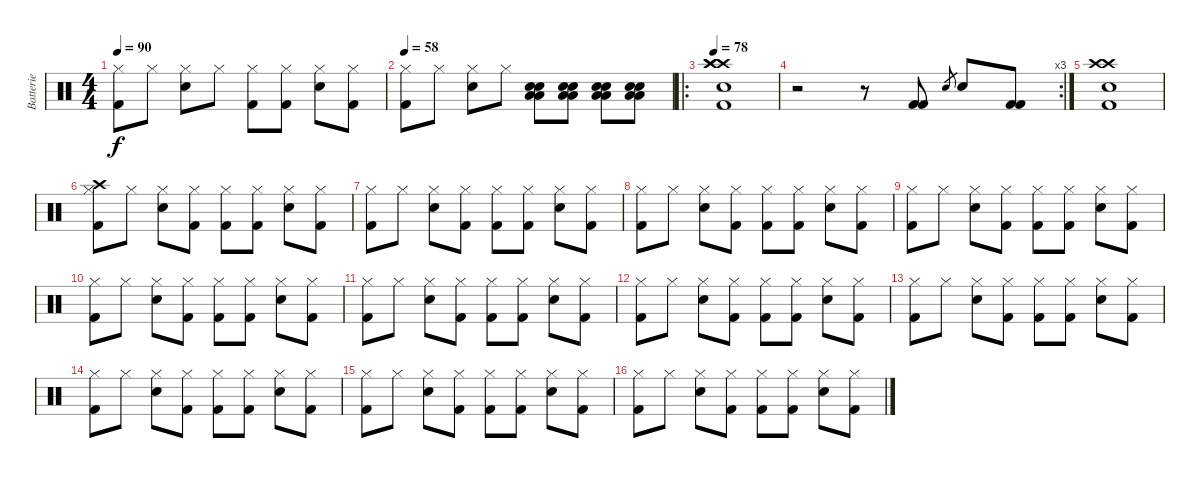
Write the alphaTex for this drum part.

\track ("Batterie" "Batterie") {instrument percussion}
\staff {score}
\articulation defaults
\ts (4 4)
\tempo 90
\clef neutral
\ks c
("Hi-Hat (closed)" "Kick (hit) 2").8{dy f} "Hi-Hat (closed)".8 ("Hi-Hat (closed)" "Electric Snare (hit)").8 "Hi-Hat (closed)".8 ("Hi-Hat (closed)" "Kick (hit) 2").8 ("Hi-Hat (closed)" "Kick (hit) 2").8 ("Hi-Hat (closed)" "Electric Snare (hit)").8 ("Hi-Hat (closed)" "Kick (hit) 2").8 |
\tempo 58
("Hi-Hat (closed)" "Kick (hit) 2").8 "Hi-Hat (closed)".8 ("Hi-Hat (closed)" "Electric Snare (hit)").8 "Hi-Hat (closed)".8 ("Low Floor Tom (hit)" "Low Floor Tom (hit)" "Electric Snare (hit)" "Electric Snare (hit)").8 ("Low Floor Tom (hit)" "Low Floor Tom (hit)" "Electric Snare (hit)" "Electric Snare (hit)").8 ("Low Floor Tom (hit)" "Low Floor Tom (hit)" "Electric Snare (hit)" "Electric Snare (hit)").8 ("Low Floor Tom (hit)" "Low Floor Tom (hit)" "Electric Snare (hit)" "Electric Snare (hit)").8 |
\ro
\tempo 78
("Crash high (hit)" "Crash high (hit)" "Crash high (hit)" "Electric Snare (hit)" "Kick (hit) 2").1 |
\rc 3
r.2 r.8 ("Kick (hit) 2" "Kick (hit) 2").8 "Electric Snare (hit)".8{gr} "Electric Snare (hit)".8 ("Kick (hit) 2" "Kick (hit) 2").8 |
("Crash high (hit)" "Crash high (hit)" "Electric Snare (hit)" "Kick (hit) 2").1 |
("Hi-Hat (closed)" "Crash high (hit)" "Kick (hit) 2").8 "Hi-Hat (closed)".8 ("Hi-Hat (closed)" "Electric Snare (hit)").8 ("Hi-Hat (closed)" "Kick (hit) 2").8 ("Hi-Hat (closed)" "Kick (hit) 2").8 ("Hi-Hat (closed)" "Kick (hit) 2").8 ("Hi-Hat (closed)" "Electric Snare (hit)").8 ("Hi-Hat (closed)" "Kick (hit) 2").8 |
("Hi-Hat (closed)" "Kick (hit) 2").8 "Hi-Hat (closed)".8 ("Hi-Hat (closed)" "Electric Snare (hit)").8 ("Hi-Hat (closed)" "Kick (hit) 2").8 ("Hi-Hat (closed)" "Kick (hit) 2").8 ("Hi-Hat (closed)" "Kick (hit) 2").8 ("Hi-Hat (closed)" "Electric Snare (hit)").8 ("Hi-Hat (closed)" "Kick (hit) 2").8 |
("Hi-Hat (closed)" "Kick (hit) 2").8 "Hi-Hat (closed)".8 ("Hi-Hat (closed)" "Electric Snare (hit)").8 ("Hi-Hat (closed)" "Kick (hit) 2").8 ("Hi-Hat (closed)" "Kick (hit) 2").8 ("Hi-Hat (closed)" "Kick (hit) 2").8 ("Hi-Hat (closed)" "Electric Snare (hit)").8 ("Hi-Hat (closed)" "Kick (hit) 2").8 |
("Hi-Hat (closed)" "Kick (hit) 2").8 "Hi-Hat (closed)".8 ("Hi-Hat (closed)" "Electric Snare (hit)").8 ("Hi-Hat (closed)" "Kick (hit) 2").8 ("Hi-Hat (closed)" "Kick (hit) 2").8 ("Hi-Hat (closed)" "Kick (hit) 2").8 ("Hi-Hat (closed)" "Electric Snare (hit)").8 ("Hi-Hat (closed)" "Kick (hit) 2").8 |
("Hi-Hat (closed)" "Kick (hit) 2").8 "Hi-Hat (closed)".8 ("Hi-Hat (closed)" "Electric Snare (hit)").8 ("Hi-Hat (closed)" "Kick (hit) 2").8 ("Hi-Hat (closed)" "Kick (hit) 2").8 ("Hi-Hat (closed)" "Kick (hit) 2").8 ("Hi-Hat (closed)" "Electric Snare (hit)").8 ("Hi-Hat (closed)" "Kick (hit) 2").8 |
("Hi-Hat (closed)" "Kick (hit) 2").8 "Hi-Hat (closed)".8 ("Hi-Hat (closed)" "Electric Snare (hit)").8 ("Hi-Hat (closed)" "Kick (hit) 2").8 ("Hi-Hat (closed)" "Kick (hit) 2").8 ("Hi-Hat (closed)" "Kick (hit) 2").8 ("Hi-Hat (closed)" "Electric Snare (hit)").8 ("Hi-Hat (closed)" "Kick (hit) 2").8 |
("Hi-Hat (closed)" "Kick (hit) 2").8 "Hi-Hat (closed)".8 ("Hi-Hat (closed)" "Electric Snare (hit)").8 ("Hi-Hat (closed)" "Kick (hit) 2").8 ("Hi-Hat (closed)" "Kick (hit) 2").8 ("Hi-Hat (closed)" "Kick (hit) 2").8 ("Hi-Hat (closed)" "Electric Snare (hit)").8 ("Hi-Hat (closed)" "Kick (hit) 2").8 |
("Hi-Hat (closed)" "Kick (hit) 2").8 "Hi-Hat (closed)".8 ("Hi-Hat (closed)" "Electric Snare (hit)").8 ("Hi-Hat (closed)" "Kick (hit) 2").8 ("Hi-Hat (closed)" "Kick (hit) 2").8 ("Hi-Hat (closed)" "Kick (hit) 2").8 ("Hi-Hat (closed)" "Electric Snare (hit)").8 ("Hi-Hat (closed)" "Kick (hit) 2").8 |
("Hi-Hat (closed)" "Kick (hit) 2").8 "Hi-Hat (closed)".8 ("Hi-Hat (closed)" "Electric Snare (hit)").8 ("Hi-Hat (closed)" "Kick (hit) 2").8 ("Hi-Hat (closed)" "Kick (hit) 2").8 ("Hi-Hat (closed)" "Kick (hit) 2").8 ("Hi-Hat (closed)" "Electric Snare (hit)").8 ("Hi-Hat (closed)" "Kick (hit) 2").8 |
("Hi-Hat (closed)" "Kick (hit) 2").8 "Hi-Hat (closed)".8 ("Hi-Hat (closed)" "Electric Snare (hit)").8 ("Hi-Hat (closed)" "Kick (hit) 2").8 ("Hi-Hat (closed)" "Kick (hit) 2").8 ("Hi-Hat (closed)" "Kick (hit) 2").8 ("Hi-Hat (closed)" "Electric Snare (hit)").8 ("Hi-Hat (closed)" "Kick (hit) 2").8 |
("Hi-Hat (closed)" "Kick (hit) 2").8 "Hi-Hat (closed)".8 ("Hi-Hat (closed)" "Electric Snare (hit)").8 ("Hi-Hat (closed)" "Kick (hit) 2").8 ("Hi-Hat (closed)" "Kick (hit) 2").8 ("Hi-Hat (closed)" "Kick (hit) 2").8 ("Hi-Hat (closed)" "Electric Snare (hit)").8 ("Hi-Hat (closed)" "Kick (hit) 2").8
